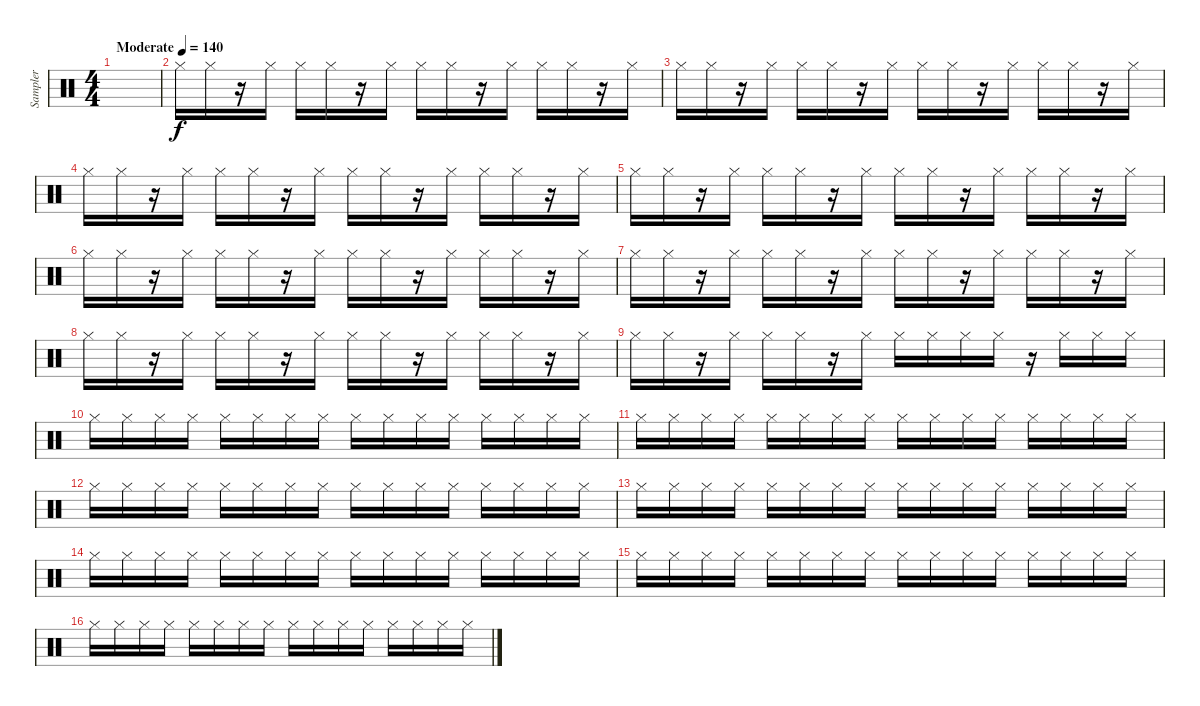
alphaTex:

\track ("Sampler" "Sampler") {instrument percussion}
\staff {score}
\articulation defaults
\ts (4 4)
\tempo (140 "Moderate")
\clef neutral
\ks c
|
"Hi-Hat (closed)".16 "Hi-Hat (closed)".16 r.16 "Hi-Hat (closed)".16 "Hi-Hat (closed)".16 "Hi-Hat (closed)".16 r.16 "Hi-Hat (closed)".16 "Hi-Hat (closed)".16 "Hi-Hat (closed)".16 r.16 "Hi-Hat (closed)".16 "Hi-Hat (closed)".16 "Hi-Hat (closed)".16 r.16 "Hi-Hat (closed)".16 |
"Hi-Hat (closed)".16 "Hi-Hat (closed)".16 r.16 "Hi-Hat (closed)".16 "Hi-Hat (closed)".16 "Hi-Hat (closed)".16 r.16 "Hi-Hat (closed)".16 "Hi-Hat (closed)".16 "Hi-Hat (closed)".16 r.16 "Hi-Hat (closed)".16 "Hi-Hat (closed)".16 "Hi-Hat (closed)".16 r.16 "Hi-Hat (closed)".16 |
"Hi-Hat (closed)".16 "Hi-Hat (closed)".16 r.16 "Hi-Hat (closed)".16 "Hi-Hat (closed)".16 "Hi-Hat (closed)".16 r.16 "Hi-Hat (closed)".16 "Hi-Hat (closed)".16 "Hi-Hat (closed)".16 r.16 "Hi-Hat (closed)".16 "Hi-Hat (closed)".16 "Hi-Hat (closed)".16 r.16 "Hi-Hat (closed)".16 |
"Hi-Hat (closed)".16 "Hi-Hat (closed)".16 r.16 "Hi-Hat (closed)".16 "Hi-Hat (closed)".16 "Hi-Hat (closed)".16 r.16 "Hi-Hat (closed)".16 "Hi-Hat (closed)".16 "Hi-Hat (closed)".16 r.16 "Hi-Hat (closed)".16 "Hi-Hat (closed)".16 "Hi-Hat (closed)".16 r.16 "Hi-Hat (closed)".16 |
"Hi-Hat (closed)".16 "Hi-Hat (closed)".16 r.16 "Hi-Hat (closed)".16 "Hi-Hat (closed)".16 "Hi-Hat (closed)".16 r.16 "Hi-Hat (closed)".16 "Hi-Hat (closed)".16 "Hi-Hat (closed)".16 r.16 "Hi-Hat (closed)".16 "Hi-Hat (closed)".16 "Hi-Hat (closed)".16 r.16 "Hi-Hat (closed)".16 |
"Hi-Hat (closed)".16 "Hi-Hat (closed)".16 r.16 "Hi-Hat (closed)".16 "Hi-Hat (closed)".16 "Hi-Hat (closed)".16 r.16 "Hi-Hat (closed)".16 "Hi-Hat (closed)".16 "Hi-Hat (closed)".16 r.16 "Hi-Hat (closed)".16 "Hi-Hat (closed)".16 "Hi-Hat (closed)".16 r.16 "Hi-Hat (closed)".16 |
"Hi-Hat (closed)".16 "Hi-Hat (closed)".16 r.16 "Hi-Hat (closed)".16 "Hi-Hat (closed)".16 "Hi-Hat (closed)".16 r.16 "Hi-Hat (closed)".16 "Hi-Hat (closed)".16 "Hi-Hat (closed)".16 r.16 "Hi-Hat (closed)".16 "Hi-Hat (closed)".16 "Hi-Hat (closed)".16 r.16 "Hi-Hat (closed)".16 |
"Hi-Hat (closed)".16 "Hi-Hat (closed)".16 r.16 "Hi-Hat (closed)".16 "Hi-Hat (closed)".16 "Hi-Hat (closed)".16 r.16 "Hi-Hat (closed)".16 "Hi-Hat (closed)".16 "Hi-Hat (closed)".16 "Hi-Hat (closed)".16 "Hi-Hat (closed)".16 r.16 "Hi-Hat (closed)".16 "Hi-Hat (closed)".16 "Hi-Hat (closed)".16 |
"Hi-Hat (closed)".16 "Hi-Hat (closed)".16 "Hi-Hat (closed)".16 "Hi-Hat (closed)".16 "Hi-Hat (closed)".16 "Hi-Hat (closed)".16 "Hi-Hat (closed)".16 "Hi-Hat (closed)".16 "Hi-Hat (closed)".16 "Hi-Hat (closed)".16 "Hi-Hat (closed)".16 "Hi-Hat (closed)".16 "Hi-Hat (closed)".16 "Hi-Hat (closed)".16 "Hi-Hat (closed)".16 "Hi-Hat (closed)".16 |
"Hi-Hat (closed)".16 "Hi-Hat (closed)".16 "Hi-Hat (closed)".16 "Hi-Hat (closed)".16 "Hi-Hat (closed)".16 "Hi-Hat (closed)".16 "Hi-Hat (closed)".16 "Hi-Hat (closed)".16 "Hi-Hat (closed)".16 "Hi-Hat (closed)".16 "Hi-Hat (closed)".16 "Hi-Hat (closed)".16 "Hi-Hat (closed)".16 "Hi-Hat (closed)".16 "Hi-Hat (closed)".16 "Hi-Hat (closed)".16 |
"Hi-Hat (closed)".16 "Hi-Hat (closed)".16 "Hi-Hat (closed)".16 "Hi-Hat (closed)".16 "Hi-Hat (closed)".16 "Hi-Hat (closed)".16 "Hi-Hat (closed)".16 "Hi-Hat (closed)".16 "Hi-Hat (closed)".16 "Hi-Hat (closed)".16 "Hi-Hat (closed)".16 "Hi-Hat (closed)".16 "Hi-Hat (closed)".16 "Hi-Hat (closed)".16 "Hi-Hat (closed)".16 "Hi-Hat (closed)".16 |
"Hi-Hat (closed)".16 "Hi-Hat (closed)".16 "Hi-Hat (closed)".16 "Hi-Hat (closed)".16 "Hi-Hat (closed)".16 "Hi-Hat (closed)".16 "Hi-Hat (closed)".16 "Hi-Hat (closed)".16 "Hi-Hat (closed)".16 "Hi-Hat (closed)".16 "Hi-Hat (closed)".16 "Hi-Hat (closed)".16 "Hi-Hat (closed)".16 "Hi-Hat (closed)".16 "Hi-Hat (closed)".16 "Hi-Hat (closed)".16 |
"Hi-Hat (closed)".16 "Hi-Hat (closed)".16 "Hi-Hat (closed)".16 "Hi-Hat (closed)".16 "Hi-Hat (closed)".16 "Hi-Hat (closed)".16 "Hi-Hat (closed)".16 "Hi-Hat (closed)".16 "Hi-Hat (closed)".16 "Hi-Hat (closed)".16 "Hi-Hat (closed)".16 "Hi-Hat (closed)".16 "Hi-Hat (closed)".16 "Hi-Hat (closed)".16 "Hi-Hat (closed)".16 "Hi-Hat (closed)".16 |
"Hi-Hat (closed)".16 "Hi-Hat (closed)".16 "Hi-Hat (closed)".16 "Hi-Hat (closed)".16 "Hi-Hat (closed)".16 "Hi-Hat (closed)".16 "Hi-Hat (closed)".16 "Hi-Hat (closed)".16 "Hi-Hat (closed)".16 "Hi-Hat (closed)".16 "Hi-Hat (closed)".16 "Hi-Hat (closed)".16 "Hi-Hat (closed)".16 "Hi-Hat (closed)".16 "Hi-Hat (closed)".16 "Hi-Hat (closed)".16 |
"Hi-Hat (closed)".16 "Hi-Hat (closed)".16 "Hi-Hat (closed)".16 "Hi-Hat (closed)".16 "Hi-Hat (closed)".16 "Hi-Hat (closed)".16 "Hi-Hat (closed)".16 "Hi-Hat (closed)".16 "Hi-Hat (closed)".16 "Hi-Hat (closed)".16 "Hi-Hat (closed)".16 "Hi-Hat (closed)".16 "Hi-Hat (closed)".16 "Hi-Hat (closed)".16 "Hi-Hat (closed)".16 "Hi-Hat (closed)".16
